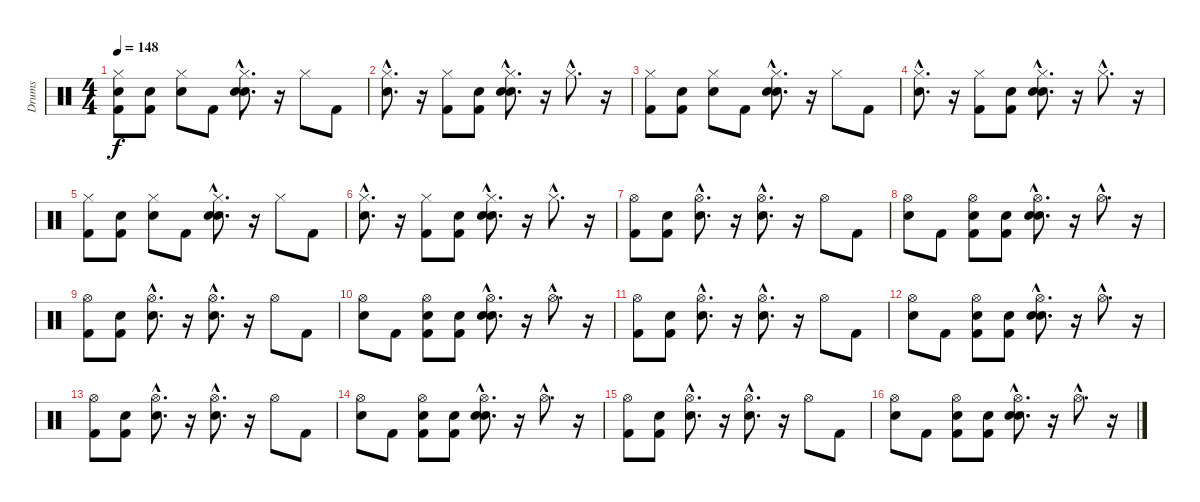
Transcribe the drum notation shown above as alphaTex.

\track ("Drums" "Drums") {instrument percussion}
\staff {score}
\articulation defaults
\ts (4 4)
\tempo 148
\clef neutral
\ks c
("Snare (hit)" "Kick (hit) 2" "Hi-Hat (closed)").8{dy f} ("Snare (hit)" "Kick (hit) 2").8 ("Snare (hit)" "Hi-Hat (closed)").8 "Kick (hit) 2".8 ("Snare (hit)"{hac} "Snare (hit) 2"{hac} "Hi-Hat (closed)"{hac}).8{d} r.16 "Hi-Hat (closed)".8 "Kick (hit) 2".8 |
("Snare (hit)"{hac} "Hi-Hat (closed)"{hac}).8{d} r.16 ("Kick (hit) 2" "Hi-Hat (closed)").8 ("Snare (hit)" "Kick (hit) 2").8 ("Snare (hit)"{hac} "Snare (hit) 2"{hac} "Hi-Hat (closed)"{hac}).8{d} r.16 "Hi-Hat (closed)"{hac}.8{d} r.16 |
("Kick (hit) 2" "Hi-Hat (closed)").8 ("Snare (hit)" "Kick (hit) 2").8 ("Snare (hit)" "Hi-Hat (closed)").8 "Kick (hit) 2".8 ("Snare (hit)"{hac} "Snare (hit) 2"{hac} "Hi-Hat (closed)"{hac}).8{d} r.16 "Hi-Hat (closed)".8 "Kick (hit) 2".8 |
("Snare (hit)"{hac} "Hi-Hat (closed)"{hac}).8{d} r.16 ("Kick (hit) 2" "Hi-Hat (closed)").8 ("Snare (hit)" "Kick (hit) 2").8 ("Snare (hit)"{hac} "Snare (hit) 2"{hac} "Hi-Hat (closed)"{hac}).8{d} r.16 "Hi-Hat (closed)"{hac}.8{d} r.16 |
("Kick (hit) 2" "Hi-Hat (closed)").8 ("Snare (hit)" "Kick (hit) 2").8 ("Snare (hit)" "Hi-Hat (closed)").8 "Kick (hit) 2".8 ("Snare (hit)"{hac} "Snare (hit) 2"{hac} "Hi-Hat (closed)"{hac}).8{d} r.16 "Hi-Hat (closed)".8 "Kick (hit) 2".8 |
("Snare (hit)"{hac} "Hi-Hat (closed)"{hac}).8{d} r.16 ("Kick (hit) 2" "Hi-Hat (closed)").8 ("Snare (hit)" "Kick (hit) 2").8 ("Snare (hit)"{hac} "Snare (hit) 2"{hac} "Hi-Hat (closed)"{hac}).8{d} r.16 "Hi-Hat (closed)"{hac}.8{d} r.16 |
("Kick (hit) 2" "Hi-Hat (open)").8 ("Snare (hit)" "Kick (hit) 2").8 ("Snare (hit)"{hac} "Hi-Hat (open)"{hac}).8{d} r.16 ("Snare (hit) 2"{hac} "Hi-Hat (open)"{hac}).8{d} r.16 "Hi-Hat (open)".8 "Kick (hit) 2".8 |
("Snare (hit)" "Hi-Hat (open)").8 "Kick (hit) 2".8 ("Snare (hit)" "Kick (hit) 2" "Hi-Hat (open)").8 ("Snare (hit)" "Kick (hit) 2").8 ("Snare (hit)"{hac} "Snare (hit) 2"{hac} "Hi-Hat (open)"{hac}).8{d} r.16 "Hi-Hat (open)"{hac}.8{d} r.16 |
("Kick (hit) 2" "Hi-Hat (open)").8 ("Snare (hit)" "Kick (hit) 2").8 ("Snare (hit)"{hac} "Hi-Hat (open)"{hac}).8{d} r.16 ("Snare (hit) 2"{hac} "Hi-Hat (open)"{hac}).8{d} r.16 "Hi-Hat (open)".8 "Kick (hit) 2".8 |
("Snare (hit)" "Hi-Hat (open)").8 "Kick (hit) 2".8 ("Snare (hit)" "Kick (hit) 2" "Hi-Hat (open)").8 ("Snare (hit)" "Kick (hit) 2").8 ("Snare (hit)"{hac} "Snare (hit) 2"{hac} "Hi-Hat (open)"{hac}).8{d} r.16 "Hi-Hat (open)"{hac}.8{d} r.16 |
("Kick (hit) 2" "Hi-Hat (open)").8 ("Snare (hit)" "Kick (hit) 2").8 ("Snare (hit)"{hac} "Hi-Hat (open)"{hac}).8{d} r.16 ("Snare (hit) 2"{hac} "Hi-Hat (open)"{hac}).8{d} r.16 "Hi-Hat (open)".8 "Kick (hit) 2".8 |
("Snare (hit)" "Hi-Hat (open)").8 "Kick (hit) 2".8 ("Snare (hit)" "Kick (hit) 2" "Hi-Hat (open)").8 ("Snare (hit)" "Kick (hit) 2").8 ("Snare (hit)"{hac} "Snare (hit) 2"{hac} "Hi-Hat (open)"{hac}).8{d} r.16 "Hi-Hat (open)"{hac}.8{d} r.16 |
("Kick (hit) 2" "Hi-Hat (open)").8 ("Snare (hit)" "Kick (hit) 2").8 ("Snare (hit)"{hac} "Hi-Hat (open)"{hac}).8{d} r.16 ("Snare (hit) 2"{hac} "Hi-Hat (open)"{hac}).8{d} r.16 "Hi-Hat (open)".8 "Kick (hit) 2".8 |
("Snare (hit)" "Hi-Hat (open)").8 "Kick (hit) 2".8 ("Snare (hit)" "Kick (hit) 2" "Hi-Hat (open)").8 ("Snare (hit)" "Kick (hit) 2").8 ("Snare (hit)"{hac} "Snare (hit) 2"{hac} "Hi-Hat (open)"{hac}).8{d} r.16 "Hi-Hat (open)"{hac}.8{d} r.16 |
("Kick (hit) 2" "Hi-Hat (open)").8 ("Snare (hit)" "Kick (hit) 2").8 ("Snare (hit)"{hac} "Hi-Hat (open)"{hac}).8{d} r.16 ("Snare (hit) 2"{hac} "Hi-Hat (open)"{hac}).8{d} r.16 "Hi-Hat (open)".8 "Kick (hit) 2".8 |
("Snare (hit)" "Hi-Hat (open)").8 "Kick (hit) 2".8 ("Snare (hit)" "Kick (hit) 2" "Hi-Hat (open)").8 ("Snare (hit)" "Kick (hit) 2").8 ("Snare (hit)"{hac} "Snare (hit) 2"{hac} "Hi-Hat (open)"{hac}).8{d} r.16 "Hi-Hat (open)"{hac}.8{d} r.16
